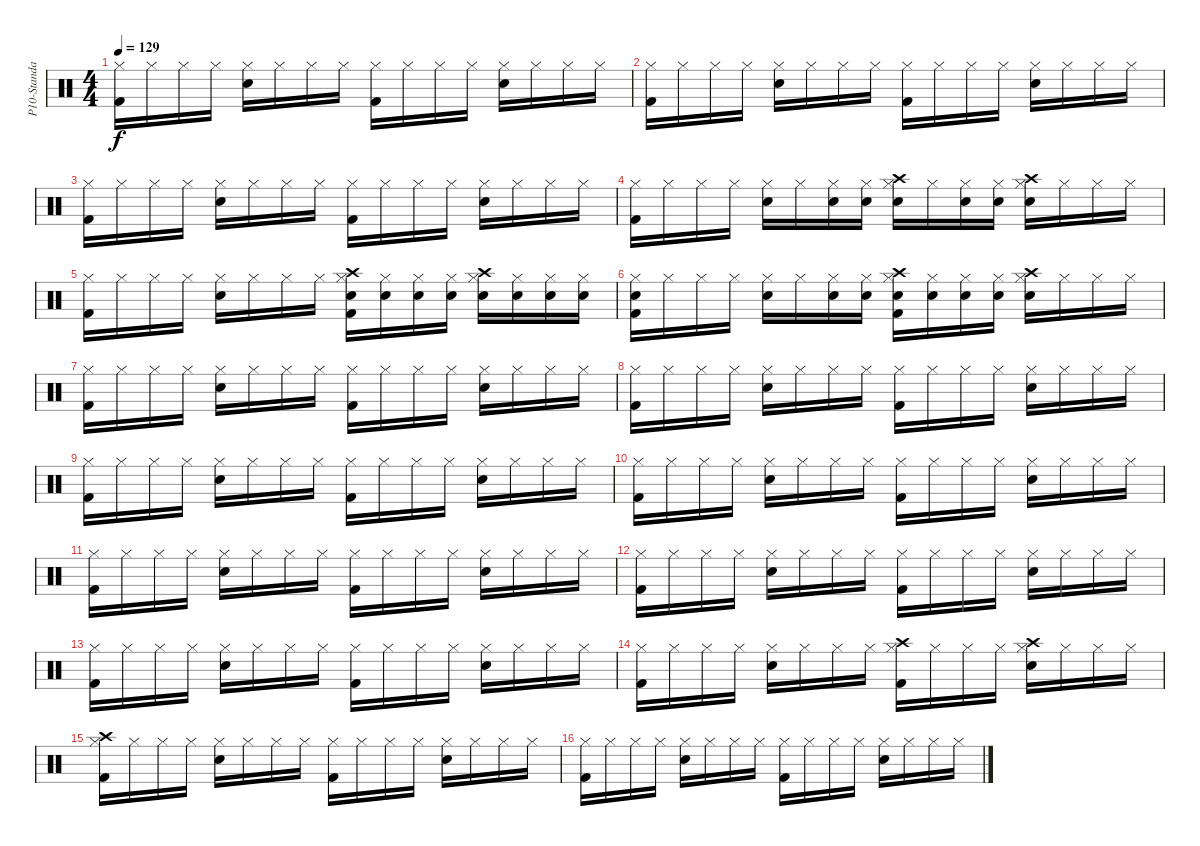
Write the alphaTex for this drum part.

\track ("P10-Standard Kit 2" "P10-Standa") {instrument percussion}
\staff {score}
\articulation defaults
\ts (4 4)
\tempo 129
\clef neutral
\ks c
("Kick (hit) 2" "Hi-Hat (closed)").16{dy f} "Hi-Hat (closed)".16 "Hi-Hat (closed)".16 "Hi-Hat (closed)".16 ("Hi-Hat (closed)" "Snare (hit) 2").16 "Hi-Hat (closed)".16 "Hi-Hat (closed)".16 "Hi-Hat (closed)".16 ("Hi-Hat (closed)" "Kick (hit) 2").16 "Hi-Hat (closed)".16 "Hi-Hat (closed)".16 "Hi-Hat (closed)".16 ("Hi-Hat (closed)" "Snare (hit) 2").16 "Hi-Hat (closed)".16 "Hi-Hat (closed)".16 "Hi-Hat (closed)".16 |
("Kick (hit) 2" "Hi-Hat (closed)").16 "Hi-Hat (closed)".16 "Hi-Hat (closed)".16 "Hi-Hat (closed)".16 ("Hi-Hat (closed)" "Snare (hit) 2").16 "Hi-Hat (closed)".16 "Hi-Hat (closed)".16 "Hi-Hat (closed)".16 ("Hi-Hat (closed)" "Kick (hit) 2").16 "Hi-Hat (closed)".16 "Hi-Hat (closed)".16 "Hi-Hat (closed)".16 ("Hi-Hat (closed)" "Snare (hit) 2").16 "Hi-Hat (closed)".16 "Hi-Hat (closed)".16 "Hi-Hat (closed)".16 |
("Hi-Hat (closed)" "Kick (hit) 2").16 "Hi-Hat (closed)".16 "Hi-Hat (closed)".16 "Hi-Hat (closed)".16 ("Snare (hit) 2" "Hi-Hat (closed)").16 "Hi-Hat (closed)".16 "Hi-Hat (closed)".16 "Hi-Hat (closed)".16 ("Hi-Hat (closed)" "Kick (hit) 2").16 "Hi-Hat (closed)".16 "Hi-Hat (closed)".16 "Hi-Hat (closed)".16 ("Hi-Hat (closed)" "Snare (hit) 2").16 "Hi-Hat (closed)".16 "Hi-Hat (closed)".16 "Hi-Hat (closed)".16 |
("Kick (hit) 2" "Hi-Hat (closed)").16 "Hi-Hat (closed)".16 "Hi-Hat (closed)".16 "Hi-Hat (closed)".16 ("Snare (hit) 2" "Hi-Hat (closed)").16 "Hi-Hat (closed)".16 ("Snare (hit) 2" "Hi-Hat (closed)").16 ("Hi-Hat (closed)" "Snare (hit) 2").16 ("Snare (hit) 2" "Crash high (hit)" "Hi-Hat (closed)").16 "Hi-Hat (closed)".16 ("Hi-Hat (closed)" "Snare (hit) 2").16 ("Hi-Hat (closed)" "Snare (hit) 2").16 ("Snare (hit) 2" "Crash high (hit)" "Hi-Hat (closed)").16 "Hi-Hat (closed)".16 "Hi-Hat (closed)".16 "Hi-Hat (closed)".16 |
("Hi-Hat (closed)" "Kick (hit) 2").16 "Hi-Hat (closed)".16 "Hi-Hat (closed)".16 "Hi-Hat (closed)".16 ("Snare (hit) 2" "Hi-Hat (closed)").16 "Hi-Hat (closed)".16 "Hi-Hat (closed)".16 "Hi-Hat (closed)".16 ("Crash high (hit)" "Snare (hit) 2" "Kick (hit) 2" "Hi-Hat (closed)").16 ("Snare (hit) 2" "Hi-Hat (closed)").16 ("Snare (hit) 2" "Hi-Hat (closed)").16 ("Hi-Hat (closed)" "Snare (hit) 2").16 ("Snare (hit) 2" "Crash high (hit)" "Hi-Hat (closed)").16 ("Snare (hit) 2" "Hi-Hat (closed)").16 ("Hi-Hat (closed)" "Snare (hit) 2").16 ("Snare (hit) 2" "Hi-Hat (closed)").16 |
("Hi-Hat (closed)" "Kick (hit) 2" "Snare (hit) 2").16 "Hi-Hat (closed)".16 "Hi-Hat (closed)".16 "Hi-Hat (closed)".16 ("Hi-Hat (closed)" "Snare (hit) 2").16 "Hi-Hat (closed)".16 ("Snare (hit) 2" "Hi-Hat (closed)").16 ("Hi-Hat (closed)" "Snare (hit) 2").16 ("Hi-Hat (closed)" "Crash high (hit)" "Snare (hit) 2" "Kick (hit) 2").16 ("Snare (hit) 2" "Hi-Hat (closed)").16 ("Snare (hit) 2" "Hi-Hat (closed)").16 ("Hi-Hat (closed)" "Snare (hit) 2").16 ("Hi-Hat (closed)" "Snare (hit) 2" "Crash high (hit)").16 "Hi-Hat (closed)".16 "Hi-Hat (closed)".16 "Hi-Hat (closed)".16 |
("Hi-Hat (closed)" "Kick (hit) 2").16 "Hi-Hat (closed)".16 "Hi-Hat (closed)".16 "Hi-Hat (closed)".16 ("Hi-Hat (closed)" "Snare (hit) 2").16 "Hi-Hat (closed)".16 "Hi-Hat (closed)".16 "Hi-Hat (closed)".16 ("Hi-Hat (closed)" "Kick (hit) 2").16 "Hi-Hat (closed)".16 "Hi-Hat (closed)".16 "Hi-Hat (closed)".16 ("Hi-Hat (closed)" "Snare (hit) 2").16 "Hi-Hat (closed)".16 "Hi-Hat (closed)".16 "Hi-Hat (closed)".16 |
("Hi-Hat (closed)" "Kick (hit) 2").16 "Hi-Hat (closed)".16 "Hi-Hat (closed)".16 "Hi-Hat (closed)".16 ("Hi-Hat (closed)" "Snare (hit) 2").16 "Hi-Hat (closed)".16 "Hi-Hat (closed)".16 "Hi-Hat (closed)".16 ("Hi-Hat (closed)" "Kick (hit) 2").16 "Hi-Hat (closed)".16 "Hi-Hat (closed)".16 "Hi-Hat (closed)".16 ("Hi-Hat (closed)" "Snare (hit) 2").16 "Hi-Hat (closed)".16 "Hi-Hat (closed)".16 "Hi-Hat (closed)".16 |
("Hi-Hat (closed)" "Kick (hit) 2").16 "Hi-Hat (closed)".16 "Hi-Hat (closed)".16 "Hi-Hat (closed)".16 ("Hi-Hat (closed)" "Snare (hit) 2").16 "Hi-Hat (closed)".16 "Hi-Hat (closed)".16 "Hi-Hat (closed)".16 ("Hi-Hat (closed)" "Kick (hit) 2").16 "Hi-Hat (closed)".16 "Hi-Hat (closed)".16 "Hi-Hat (closed)".16 ("Hi-Hat (closed)" "Snare (hit) 2").16 "Hi-Hat (closed)".16 "Hi-Hat (closed)".16 "Hi-Hat (closed)".16 |
("Hi-Hat (closed)" "Kick (hit) 2").16 "Hi-Hat (closed)".16 "Hi-Hat (closed)".16 "Hi-Hat (closed)".16 ("Hi-Hat (closed)" "Snare (hit) 2").16 "Hi-Hat (closed)".16 "Hi-Hat (closed)".16 "Hi-Hat (closed)".16 ("Hi-Hat (closed)" "Kick (hit) 2").16 "Hi-Hat (closed)".16 "Hi-Hat (closed)".16 "Hi-Hat (closed)".16 ("Hi-Hat (closed)" "Snare (hit) 2").16 "Hi-Hat (closed)".16 "Hi-Hat (closed)".16 "Hi-Hat (closed)".16 |
("Hi-Hat (closed)" "Kick (hit) 2").16 "Hi-Hat (closed)".16 "Hi-Hat (closed)".16 "Hi-Hat (closed)".16 ("Hi-Hat (closed)" "Snare (hit) 2").16 "Hi-Hat (closed)".16 "Hi-Hat (closed)".16 "Hi-Hat (closed)".16 ("Hi-Hat (closed)" "Kick (hit) 2").16 "Hi-Hat (closed)".16 "Hi-Hat (closed)".16 "Hi-Hat (closed)".16 ("Hi-Hat (closed)" "Snare (hit) 2").16 "Hi-Hat (closed)".16 "Hi-Hat (closed)".16 "Hi-Hat (closed)".16 |
("Hi-Hat (closed)" "Kick (hit) 2").16 "Hi-Hat (closed)".16 "Hi-Hat (closed)".16 "Hi-Hat (closed)".16 ("Hi-Hat (closed)" "Snare (hit) 2").16 "Hi-Hat (closed)".16 "Hi-Hat (closed)".16 "Hi-Hat (closed)".16 ("Hi-Hat (closed)" "Kick (hit) 2").16 "Hi-Hat (closed)".16 "Hi-Hat (closed)".16 "Hi-Hat (closed)".16 ("Hi-Hat (closed)" "Snare (hit) 2").16 "Hi-Hat (closed)".16 "Hi-Hat (closed)".16 "Hi-Hat (closed)".16 |
("Hi-Hat (closed)" "Kick (hit) 2").16 "Hi-Hat (closed)".16 "Hi-Hat (closed)".16 "Hi-Hat (closed)".16 ("Hi-Hat (closed)" "Snare (hit) 2").16 "Hi-Hat (closed)".16 "Hi-Hat (closed)".16 "Hi-Hat (closed)".16 ("Hi-Hat (closed)" "Kick (hit) 2").16 "Hi-Hat (closed)".16 "Hi-Hat (closed)".16 "Hi-Hat (closed)".16 ("Hi-Hat (closed)" "Snare (hit) 2").16 "Hi-Hat (closed)".16 "Hi-Hat (closed)".16 "Hi-Hat (closed)".16 |
("Hi-Hat (closed)" "Kick (hit) 2").16 "Hi-Hat (closed)".16 "Hi-Hat (closed)".16 "Hi-Hat (closed)".16 ("Hi-Hat (closed)" "Snare (hit) 2").16 "Hi-Hat (closed)".16 "Hi-Hat (closed)".16 "Hi-Hat (closed)".16 ("Crash high (hit)" "Hi-Hat (closed)" "Kick (hit) 2").16 "Hi-Hat (closed)".16 "Hi-Hat (closed)".16 "Hi-Hat (closed)".16 ("Snare (hit) 2" "Crash high (hit)" "Hi-Hat (closed)").16 "Hi-Hat (closed)".16 "Hi-Hat (closed)".16 "Hi-Hat (closed)".16 |
("Kick (hit) 2" "Crash high (hit)" "Hi-Hat (closed)").16 "Hi-Hat (closed)".16 "Hi-Hat (closed)".16 "Hi-Hat (closed)".16 ("Hi-Hat (closed)" "Snare (hit) 2").16 "Hi-Hat (closed)".16 "Hi-Hat (closed)".16 "Hi-Hat (closed)".16 ("Hi-Hat (closed)" "Kick (hit) 2").16 "Hi-Hat (closed)".16 "Hi-Hat (closed)".16 "Hi-Hat (closed)".16 ("Hi-Hat (closed)" "Snare (hit) 2").16 "Hi-Hat (closed)".16 "Hi-Hat (closed)".16 "Hi-Hat (closed)".16 |
("Hi-Hat (closed)" "Kick (hit) 2").16 "Hi-Hat (closed)".16 "Hi-Hat (closed)".16 "Hi-Hat (closed)".16 ("Hi-Hat (closed)" "Snare (hit) 2").16 "Hi-Hat (closed)".16 "Hi-Hat (closed)".16 "Hi-Hat (closed)".16 ("Hi-Hat (closed)" "Kick (hit) 2").16 "Hi-Hat (closed)".16 "Hi-Hat (closed)".16 "Hi-Hat (closed)".16 ("Hi-Hat (closed)" "Snare (hit) 2").16 "Hi-Hat (closed)".16 "Hi-Hat (closed)".16 "Hi-Hat (closed)".16
